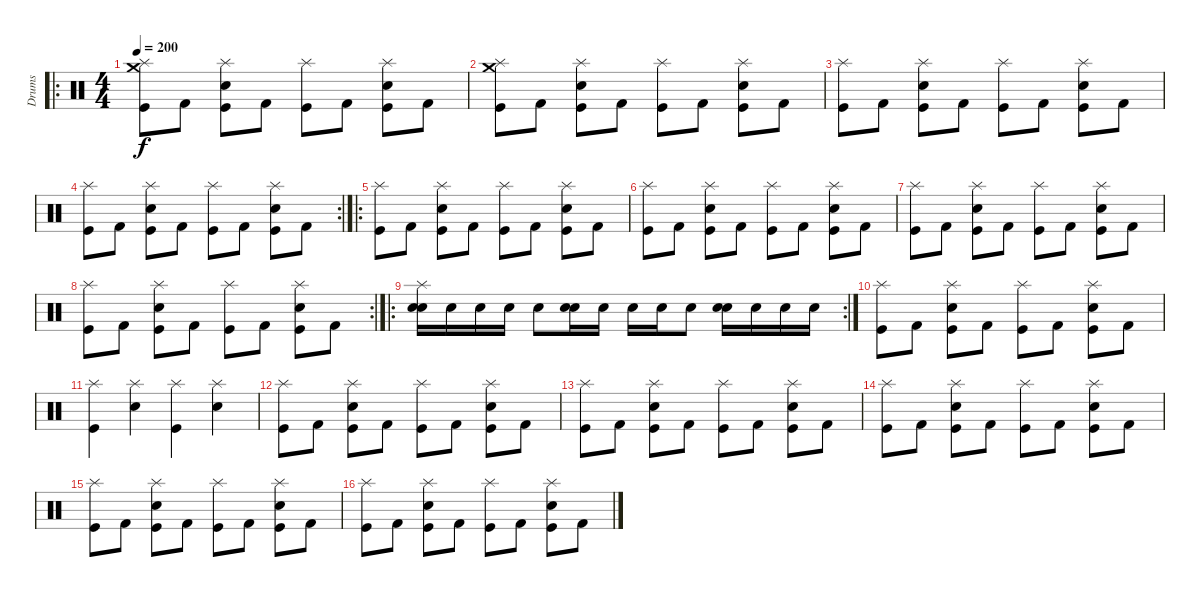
\track ("Drums" "Drums") {instrument percussion}
\staff {score}
\articulation defaults
\ro
\ts (4 4)
\tempo 200
\clef neutral
\ks c
("Splash (hit)" "Crash medium (hit)" "Kick (hit)").8{dy f} "Kick (hit) 2".8 ("Splash (hit)" "Electric Snare (hit)" "Kick (hit)").8 "Kick (hit) 2".8 ("Splash (hit)" "Kick (hit)").8 "Kick (hit) 2".8 ("Splash (hit)" "Electric Snare (hit)" "Kick (hit)").8 "Kick (hit) 2".8 |
("Splash (hit)" "Crash medium (hit)" "Kick (hit)").8 "Kick (hit) 2".8 ("Splash (hit)" "Electric Snare (hit)" "Kick (hit)").8 "Kick (hit) 2".8 ("Splash (hit)" "Kick (hit)").8 "Kick (hit) 2".8 ("Splash (hit)" "Electric Snare (hit)" "Kick (hit)").8 "Kick (hit) 2".8 |
("Splash (hit)" "Kick (hit)").8 "Kick (hit) 2".8 ("Splash (hit)" "Electric Snare (hit)" "Kick (hit)").8 "Kick (hit) 2".8 ("Splash (hit)" "Kick (hit)").8 "Kick (hit) 2".8 ("Splash (hit)" "Electric Snare (hit)" "Kick (hit)").8 "Kick (hit) 2".8 |
\rc 2
("Splash (hit)" "Kick (hit)").8 "Kick (hit) 2".8 ("Splash (hit)" "Electric Snare (hit)" "Kick (hit)").8 "Kick (hit) 2".8 ("Splash (hit)" "Kick (hit)").8 "Kick (hit) 2".8 ("Splash (hit)" "Electric Snare (hit)" "Kick (hit)").8 "Kick (hit) 2".8 |
\ro
("Splash (hit)" "Kick (hit)").8 "Kick (hit) 2".8 ("Splash (hit)" "Electric Snare (hit)" "Kick (hit)").8 "Kick (hit) 2".8 ("Splash (hit)" "Kick (hit)").8 "Kick (hit) 2".8 ("Splash (hit)" "Electric Snare (hit)" "Kick (hit)").8 "Kick (hit) 2".8 |
("Splash (hit)" "Kick (hit)").8 "Kick (hit) 2".8 ("Splash (hit)" "Electric Snare (hit)" "Kick (hit)").8 "Kick (hit) 2".8 ("Splash (hit)" "Kick (hit)").8 "Kick (hit) 2".8 ("Splash (hit)" "Electric Snare (hit)" "Kick (hit)").8 "Kick (hit) 2".8 |
("Splash (hit)" "Kick (hit)").8 "Kick (hit) 2".8 ("Splash (hit)" "Electric Snare (hit)" "Kick (hit)").8 "Kick (hit) 2".8 ("Splash (hit)" "Kick (hit)").8 "Kick (hit) 2".8 ("Splash (hit)" "Electric Snare (hit)" "Kick (hit)").8 "Kick (hit) 2".8 |
\rc 2
("Splash (hit)" "Kick (hit)").8 "Kick (hit) 2".8 ("Splash (hit)" "Electric Snare (hit)" "Kick (hit)").8 "Kick (hit) 2".8 ("Splash (hit)" "Kick (hit)").8 "Kick (hit) 2".8 ("Splash (hit)" "Electric Snare (hit)" "Kick (hit)").8 "Kick (hit) 2".8 |
\ro
\rc 2
("Electric Snare (hit)" "Splash (hit)" "Snare (hit) 2").16 "Snare (hit) 2".16 "Snare (hit) 2".16 "Snare (hit) 2".16 "Snare (hit) 2".8 ("Electric Snare (hit)" "Snare (hit) 2").16 "Snare (hit) 2".16 "Snare (hit) 2".16 "Snare (hit) 2".16 "Snare (hit) 2".8 ("Electric Snare (hit)" "Snare (hit) 2").16 "Snare (hit) 2".16 "Snare (hit) 2".16 "Snare (hit) 2".16 |
("Splash (hit)" "Kick (hit)").8 "Kick (hit) 2".8 ("Splash (hit)" "Electric Snare (hit)" "Kick (hit)").8 "Kick (hit) 2".8 ("Splash (hit)" "Kick (hit)").8 "Kick (hit) 2".8 ("Splash (hit)" "Electric Snare (hit)" "Kick (hit)").8 "Kick (hit) 2".8 |
("Splash (hit)" "Kick (hit)").4 ("Splash (hit)" "Electric Snare (hit)").4 ("Splash (hit)" "Kick (hit)").4 ("Splash (hit)" "Electric Snare (hit)").4 |
("Splash (hit)" "Kick (hit)").8 "Kick (hit) 2".8 ("Splash (hit)" "Electric Snare (hit)" "Kick (hit)").8 "Kick (hit) 2".8 ("Splash (hit)" "Kick (hit)").8 "Kick (hit) 2".8 ("Splash (hit)" "Electric Snare (hit)" "Kick (hit)").8 "Kick (hit) 2".8 |
("Splash (hit)" "Kick (hit)").8 "Kick (hit) 2".8 ("Splash (hit)" "Electric Snare (hit)" "Kick (hit)").8 "Kick (hit) 2".8 ("Splash (hit)" "Kick (hit)").8 "Kick (hit) 2".8 ("Splash (hit)" "Electric Snare (hit)" "Kick (hit)").8 "Kick (hit) 2".8 |
("Splash (hit)" "Kick (hit)").8 "Kick (hit) 2".8 ("Splash (hit)" "Electric Snare (hit)" "Kick (hit)").8 "Kick (hit) 2".8 ("Splash (hit)" "Kick (hit)").8 "Kick (hit) 2".8 ("Splash (hit)" "Electric Snare (hit)" "Kick (hit)").8 "Kick (hit) 2".8 |
("Splash (hit)" "Kick (hit)").8 "Kick (hit) 2".8 ("Splash (hit)" "Electric Snare (hit)" "Kick (hit)").8 "Kick (hit) 2".8 ("Splash (hit)" "Kick (hit)").8 "Kick (hit) 2".8 ("Splash (hit)" "Electric Snare (hit)" "Kick (hit)").8 "Kick (hit) 2".8 |
("Splash (hit)" "Kick (hit)").8 "Kick (hit) 2".8 ("Splash (hit)" "Electric Snare (hit)" "Kick (hit)").8 "Kick (hit) 2".8 ("Splash (hit)" "Kick (hit)").8 "Kick (hit) 2".8 ("Splash (hit)" "Electric Snare (hit)" "Kick (hit)").8 "Kick (hit) 2".8
